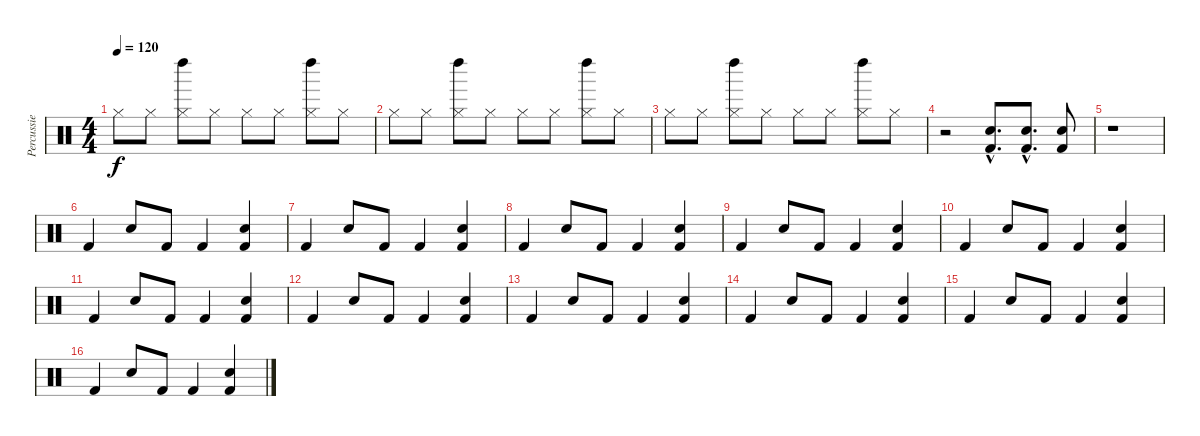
\track ("Percussie" "Percussie") {instrument percussion}
\staff {score}
\articulation defaults
\ts (4 4)
\tempo 120
\clef neutral
\ks c "Hi-Hat (closed)".8{dy f} "Hi-Hat (closed)".8
("Hi-Hat (closed)" "Left Maraca (hit)").8 "Hi-Hat (closed)".8 "Hi-Hat (closed)".8 "Hi-Hat (closed)".8 ("Hi-Hat (closed)" "Left Maraca (hit)").8 "Hi-Hat (closed)".8 |
"Hi-Hat (closed)".8 "Hi-Hat (closed)".8 ("Hi-Hat (closed)" "Left Maraca (hit)").8 "Hi-Hat (closed)".8 "Hi-Hat (closed)".8 "Hi-Hat (closed)".8 ("Hi-Hat (closed)" "Left Maraca (hit)").8 "Hi-Hat (closed)".8 |
"Hi-Hat (closed)".8 "Hi-Hat (closed)".8 ("Hi-Hat (closed)" "Left Maraca (hit)").8 "Hi-Hat (closed)".8 "Hi-Hat (closed)".8 "Hi-Hat (closed)".8 ("Hi-Hat (closed)" "Left Maraca (hit)").8 "Hi-Hat (closed)".8 |
r.2{volume 16} ("Kick (hit) 2"{hac} "Snare (hit) 2"{hac}).8{d} ("Kick (hit) 2"{hac} "Snare (hit) 2"{hac}).8{d} ("Kick (hit) 2" "Snare (hit) 2").8 |
r.1 |
"Kick (hit) 2".4{volume 16} "Snare (hit) 2".8 "Kick (hit) 2".8 "Kick (hit) 2".4 ("Snare (hit) 2" "Kick (hit) 2").4 |
"Kick (hit) 2".4 "Snare (hit) 2".8 "Kick (hit) 2".8 "Kick (hit) 2".4 ("Snare (hit) 2" "Kick (hit) 2").4 |
"Kick (hit) 2".4 "Snare (hit) 2".8 "Kick (hit) 2".8 "Kick (hit) 2".4 ("Snare (hit) 2" "Kick (hit) 2").4 |
"Kick (hit) 2".4 "Snare (hit) 2".8 "Kick (hit) 2".8 "Kick (hit) 2".4 ("Snare (hit) 2" "Kick (hit) 2").4 |
"Kick (hit) 2".4 "Snare (hit) 2".8 "Kick (hit) 2".8 "Kick (hit) 2".4 ("Snare (hit) 2" "Kick (hit) 2").4 |
"Kick (hit) 2".4 "Snare (hit) 2".8 "Kick (hit) 2".8 "Kick (hit) 2".4 ("Snare (hit) 2" "Kick (hit) 2").4 |
"Kick (hit) 2".4 "Snare (hit) 2".8 "Kick (hit) 2".8 "Kick (hit) 2".4 ("Snare (hit) 2" "Kick (hit) 2").4 |
"Kick (hit) 2".4 "Snare (hit) 2".8 "Kick (hit) 2".8 "Kick (hit) 2".4 ("Snare (hit) 2" "Kick (hit) 2").4 |
"Kick (hit) 2".4 "Snare (hit) 2".8 "Kick (hit) 2".8 "Kick (hit) 2".4 ("Snare (hit) 2" "Kick (hit) 2").4 |
"Kick (hit) 2".4 "Snare (hit) 2".8 "Kick (hit) 2".8 "Kick (hit) 2".4 ("Snare (hit) 2" "Kick (hit) 2").4 |
"Kick (hit) 2".4 "Snare (hit) 2".8 "Kick (hit) 2".8 "Kick (hit) 2".4 ("Snare (hit) 2" "Kick (hit) 2").4
